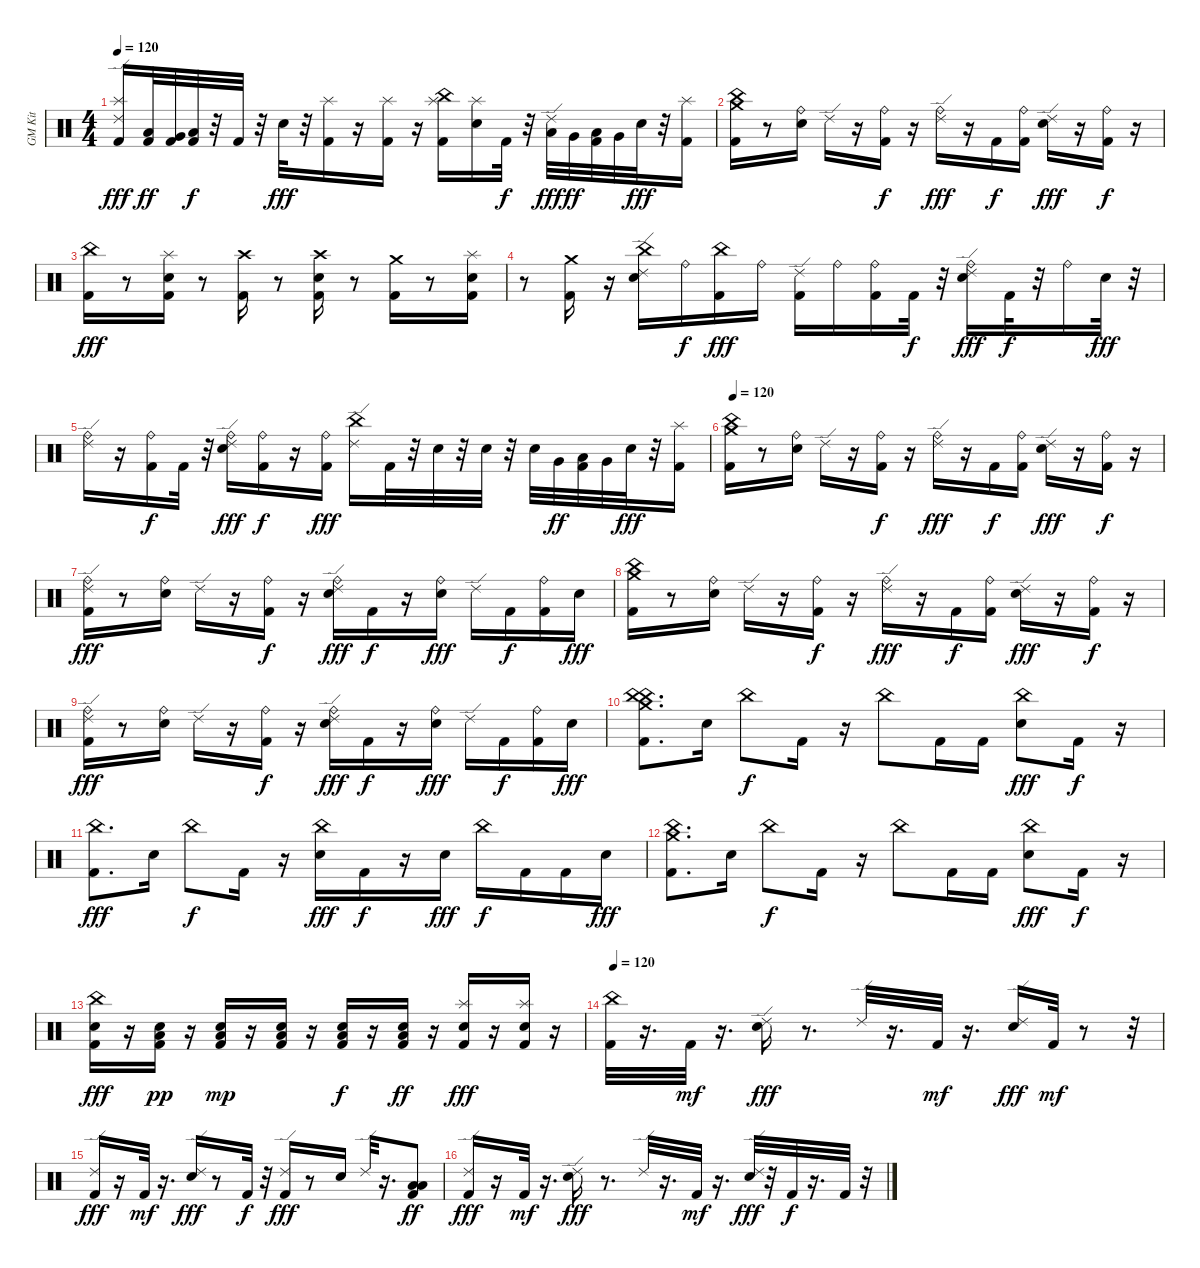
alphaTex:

\track ("GM Kit" "GM Kit") {instrument percussion}
\staff {score}
\articulation defaults
\ts (4 4)
\tempo 120
\clef neutral
\ks c
("Kick (hit) 2" "Splash (hit)" "Ride (edge) 2").16{dy fff} ("Kick (hit) 2" "Low Tom (hit)").32{dy ff} ("Kick (hit) 2" "Very Low Tom (hit)").32 ("Kick (hit) 2" "Low Floor Tom (hit)").32{dy f} r.32 "Kick (hit) 2".32 r.32 "Snare (hit) 2".32{dy fff} r.32 ("Kick (hit) 2" "Splash (hit)").16 r.16 ("Kick (hit) 2" "Splash (hit)").16 r.16 ("Kick (hit) 2" "China (hit)" "Splash (hit)").16 ("Snare (hit) 2" "Splash (hit)").16 "Kick (hit) 2".32{dy f} r.32 ("Low Tom (hit)" "Ride (edge) 2").32{dy fff} "Very Low Tom (hit)".32{dy ff} ("Kick (hit) 2" "Low Tom (hit)").32 "Very Low Tom (hit)".32 "Snare (hit) 2".32{dy fff} r.32 ("Kick (hit) 2" "Splash (hit)").16 |
("Kick (hit) 2" "China (hit)" "Crash medium (hit)").16 r.8 ("Snare (hit) 2" "Ride (bell)").16 "Ride (edge) 2".16 r.16 ("Kick (hit) 2" "Ride (bell)").16{dy f} r.16 ("Ride (bell)" "Ride (edge) 2").16{dy fff} r.16 "Kick (hit) 2".16{dy f} ("Kick (hit) 2" "Ride (bell)").16 ("Snare (hit) 2" "Ride (edge) 2").16{dy fff} r.16 ("Kick (hit) 2" "Ride (bell)").16{dy f} r.16 |
("Kick (hit) 2" "China (hit)").16{dy fff} r.8 ("Kick (hit) 2" "Snare (hit) 2" "Splash (hit)").16 r.8 ("Kick (hit) 2" "Crash high (hit)").16 r.8 ("Kick (hit) 2" "Snare (hit) 2" "Crash high (hit)").16 r.8 ("Kick (hit) 2" "Crash medium (hit)").16 r.8 ("Kick (hit) 2" "Snare (hit) 2" "Splash (hit)").16 |
r.8 ("Kick (hit) 2" "Crash medium (hit)").16 r.16 ("Snare (hit) 2" "China (hit)" "Ride (edge) 2").16 "Ride (bell)".16{dy f} ("Kick (hit) 2" "China (hit)").16{dy fff} "Ride (bell)".16 ("Kick (hit) 2" "Ride (edge) 2").16 "Ride (bell)".16 ("Kick (hit) 2" "Ride (bell)").16 "Kick (hit) 2".32{dy f} r.32 ("Snare (hit) 2" "Ride (bell)" "Ride (edge) 2").16{dy fff} "Kick (hit) 2".32{dy f} r.32 "Ride (bell)".16 "Snare (hit) 2".32{dy fff} r.32 |
("Ride (bell)" "Ride (edge) 2").16 r.16 ("Kick (hit) 2" "Ride (bell)").16{dy f} "Kick (hit) 2".32 r.32 ("Snare (hit) 2" "Ride (bell)" "Ride (edge) 2").16{dy fff} ("Kick (hit) 2" "Ride (bell)").16{dy f} r.16 ("Kick (hit) 2" "Ride (bell)").16{dy fff} ("China (hit)" "Ride (edge) 2").16 "Kick (hit) 2".32 r.32 "Snare (hit) 2".32 r.32 "Snare (hit) 2".32 r.32 "Snare (hit) 2".32 "Very Low Tom (hit)".32{dy ff} ("Kick (hit) 2" "Low Tom (hit)").32 "Very Low Tom (hit)".32 "Snare (hit) 2".32{dy fff} r.32 ("Kick (hit) 2" "Splash (hit)").16 |
\tempo 120
("Kick (hit) 2" "China (hit)" "Crash medium (hit)").16 r.8 ("Snare (hit) 2" "Ride (bell)").16 "Ride (edge) 2".16 r.16 ("Kick (hit) 2" "Ride (bell)").16{dy f} r.16 ("Ride (bell)" "Ride (edge) 2").16{dy fff} r.16 "Kick (hit) 2".16{dy f} ("Kick (hit) 2" "Ride (bell)").16 ("Snare (hit) 2" "Ride (edge) 2").16{dy fff} r.16 ("Kick (hit) 2" "Ride (bell)").16{dy f} r.16 |
("Kick (hit) 2" "Ride (bell)" "Ride (edge) 2").16{dy fff} r.8 ("Snare (hit) 2" "Ride (bell)").16 "Ride (edge) 2".16 r.16 ("Kick (hit) 2" "Ride (bell)").16{dy f} r.16 ("Snare (hit) 2" "Ride (bell)" "Ride (edge) 2").16{dy fff} "Kick (hit) 2".16{dy f} r.16 ("Snare (hit) 2" "Ride (bell)").16{dy fff} "Ride (edge) 2".16 "Kick (hit) 2".16{dy f} ("Kick (hit) 2" "Ride (bell)").16 "Snare (hit) 2".16{dy fff} |
("Kick (hit) 2" "China (hit)" "Crash medium (hit)").16 r.8 ("Snare (hit) 2" "Ride (bell)").16 "Ride (edge) 2".16 r.16 ("Kick (hit) 2" "Ride (bell)").16{dy f} r.16 ("Ride (bell)" "Ride (edge) 2").16{dy fff} r.16 "Kick (hit) 2".16{dy f} ("Kick (hit) 2" "Ride (bell)").16 ("Snare (hit) 2" "Ride (edge) 2").16{dy fff} r.16 ("Kick (hit) 2" "Ride (bell)").16{dy f} r.16 |
("Kick (hit) 2" "Ride (bell)" "Ride (edge) 2").16{dy fff} r.8 ("Snare (hit) 2" "Ride (bell)").16 "Ride (edge) 2".16 r.16 ("Kick (hit) 2" "Ride (bell)").16{dy f} r.16 ("Snare (hit) 2" "Ride (bell)" "Ride (edge) 2").16{dy fff} "Kick (hit) 2".16{dy f} r.16 ("Snare (hit) 2" "Ride (bell)").16{dy fff} "Ride (edge) 2".16 "Kick (hit) 2".16{dy f} ("Kick (hit) 2" "Ride (bell)").16 "Snare (hit) 2".16{dy fff} |
("Kick (hit) 2" "China (hit)" "China (hit)" "Crash medium (hit)").8{d} "Snare (hit) 2".16 "China (hit)".8{dy f} "Kick (hit) 2".16 r.16 "China (hit)".8 "Kick (hit) 2".16 "Kick (hit) 2".16 ("Snare (hit) 2" "China (hit)").8{dy fff} "Kick (hit) 2".16{dy f} r.16 |
("Kick (hit) 2" "China (hit)").8{d dy fff} "Snare (hit) 2".16 "China (hit)".8{dy f} "Kick (hit) 2".16 r.16 ("Snare (hit) 2" "China (hit)").16{dy fff} "Kick (hit) 2".16{dy f} r.16 "Snare (hit) 2".16{dy fff} "China (hit)".16{dy f} "Kick (hit) 2".16 "Kick (hit) 2".16 "Snare (hit) 2".16{dy fff} |
("Kick (hit) 2" "China (hit)" "Crash medium (hit)").8{d} "Snare (hit) 2".16 "China (hit)".8{dy f} "Kick (hit) 2".16 r.16 "China (hit)".8 "Kick (hit) 2".16 "Kick (hit) 2".16 ("Snare (hit) 2" "China (hit)").8{dy fff} "Kick (hit) 2".16{dy f} r.16 |
("Kick (hit) 2" "Snare (hit) 2" "China (hit)").16{dy fff} r.16 ("Kick (hit) 2" "Snare (hit) 2" "Low Floor Tom (hit)").16{dy pp} r.16 ("Kick (hit) 2" "Snare (hit) 2" "Low Floor Tom (hit)").16{dy mp} r.16 ("Kick (hit) 2" "Snare (hit) 2" "Low Floor Tom (hit)").16 r.16 ("Kick (hit) 2" "Snare (hit) 2" "Low Floor Tom (hit)").16{dy f} r.16 ("Kick (hit) 2" "Snare (hit) 2" "Low Floor Tom (hit)").16{dy ff} r.16 ("Kick (hit) 2" "Snare (hit) 2" "Splash (hit)").16{dy fff} r.16 ("Kick (hit) 2" "Snare (hit) 2" "Splash (hit)").16 r.16 |
\tempo 120
("Kick (hit) 2" "China (hit)").32 r.16{d} "Kick (hit) 2".32{dy mf} r.16{d} ("Snare (hit) 2" "Ride (edge) 2").16{dy fff} r.8{d} "Ride (edge) 2".32 r.16{d} "Kick (hit) 2".32{dy mf} r.16{d} ("Snare (hit) 2" "Ride (edge) 2").16{dy fff} "Kick (hit) 2".32{dy mf} r.8 r.32 |
("Kick (hit) 2" "Ride (edge) 2").16{dy fff} r.16 "Kick (hit) 2".32{dy mf} r.16{d} ("Snare (hit) 2" "Ride (edge) 2").16{dy fff} r.8 "Kick (hit) 2".32{dy f} r.32 ("Kick (hit) 2" "Ride (edge) 2").16{dy fff} r.8 "Snare (hit) 2".16 "Ride (edge) 2".32 r.16{d} ("Kick (hit) 2" "Low Floor Tom (hit)" "Low Floor Tom (hit)").8{dy ff} |
("Kick (hit) 2" "Ride (edge) 2").16{dy fff} r.16 "Kick (hit) 2".32{dy mf} r.16{d} ("Snare (hit) 2" "Ride (edge) 2").16{dy fff} r.8{d} "Ride (edge) 2".32 r.16{d} "Kick (hit) 2".32{dy mf} r.16{d} ("Snare (hit) 2" "Ride (edge) 2").32{dy fff} r.32 "Kick (hit) 2".32{dy f} r.16{d} "Kick (hit) 2".32 r.32
